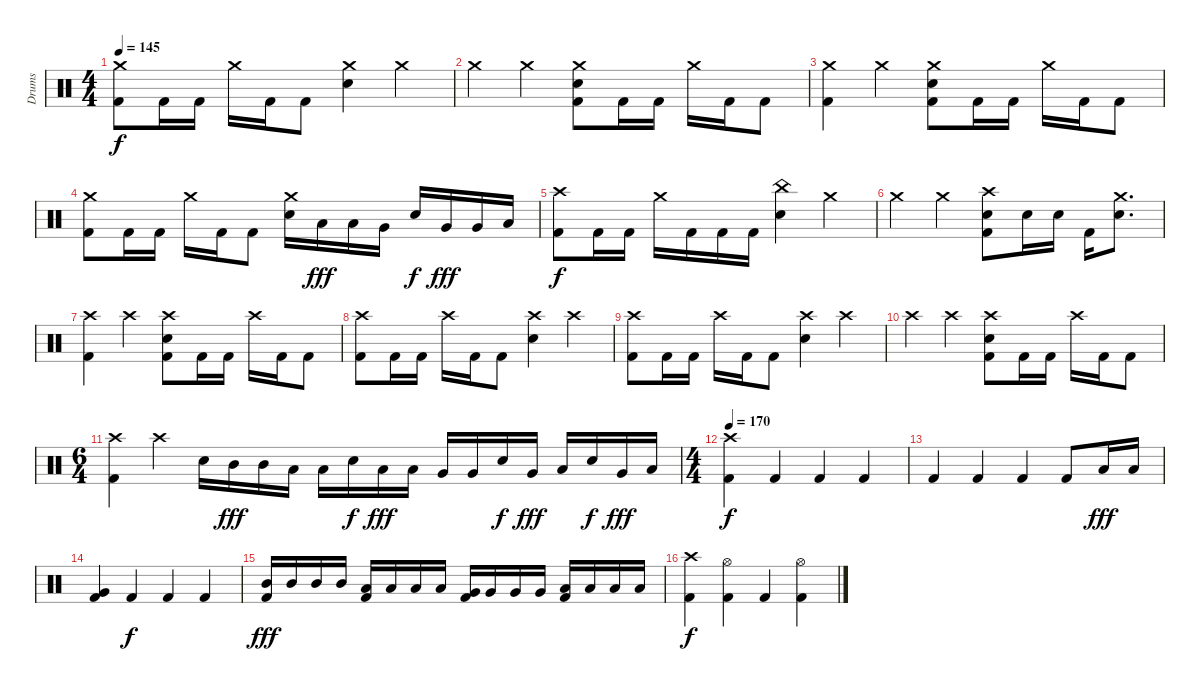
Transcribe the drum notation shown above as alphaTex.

\track ("Drums" "Drums") {instrument percussion}
\staff {score}
\articulation defaults
\ts (4 4)
\tempo 145
\clef neutral
\ks c
("Crash medium (hit)" "Kick (hit) 2").8{dy f} "Kick (hit) 2".16 "Kick (hit) 2".16 "Crash medium (hit)".16 "Kick (hit) 2".16 "Kick (hit) 2".8 ("Crash medium (hit)" "Electric Snare (hit)").4 "Crash medium (hit)".4 |
"Crash medium (hit)".4 "Crash medium (hit)".4 ("Crash medium (hit)" "Electric Snare (hit)" "Kick (hit) 2").8 "Kick (hit) 2".16 "Kick (hit) 2".16 "Crash medium (hit)".16 "Kick (hit) 2".16 "Kick (hit) 2".8 |
("Crash medium (hit)" "Kick (hit) 2").4 "Crash medium (hit)".4 ("Crash medium (hit)" "Electric Snare (hit)" "Kick (hit) 2").8 "Kick (hit) 2".16 "Kick (hit) 2".16 "Crash medium (hit)".16 "Kick (hit) 2".16 "Kick (hit) 2".8 |
("Crash medium (hit)" "Kick (hit) 2").8 "Kick (hit) 2".16 "Kick (hit) 2".16 "Crash medium (hit)".16 "Kick (hit) 2".16 "Kick (hit) 2".8 ("Crash medium (hit)" "Electric Snare (hit)").16 "Low Tom (hit)".16{dy fff} "Low Tom (hit)".16 "Very Low Tom (hit)".16 "Electric Snare (hit)".16{dy f} "Very Low Tom (hit)".16{dy fff} "Very Low Tom (hit)".16 "Low Floor Tom (hit)".16 |
("Crash high (hit)" "Kick (hit) 2").8{dy f} "Kick (hit) 2".16 "Kick (hit) 2".16 "Crash medium (hit)".16 "Kick (hit) 2".16 "Kick (hit) 2".16 "Kick (hit) 2".16 ("China (hit)" "Electric Snare (hit)").4 "Crash medium (hit)".4 |
"Crash medium (hit)".4 "Crash medium (hit)".4 ("Crash high (hit)" "Electric Snare (hit)" "Kick (hit) 2").8 "Electric Snare (hit)".16 "Electric Snare (hit)".16 "Kick (hit) 2".16 ("Crash medium (hit)" "Electric Snare (hit)").8{d} |
("Crash high (hit)" "Kick (hit) 2").4 "Crash high (hit)".4 ("Crash high (hit)" "Electric Snare (hit)" "Kick (hit) 2").8 "Kick (hit) 2".16 "Kick (hit) 2".16 "Crash high (hit)".16 "Kick (hit) 2".16 "Kick (hit) 2".8 |
("Crash high (hit)" "Kick (hit) 2").8 "Kick (hit) 2".16 "Kick (hit) 2".16 "Crash high (hit)".16 "Kick (hit) 2".16 "Kick (hit) 2".8 ("Crash high (hit)" "Electric Snare (hit)").4 "Crash high (hit)".4 |
("Crash high (hit)" "Kick (hit) 2").8 "Kick (hit) 2".16 "Kick (hit) 2".16 "Crash high (hit)".16 "Kick (hit) 2".16 "Kick (hit) 2".8 ("Crash high (hit)" "Electric Snare (hit)").4 "Crash high (hit)".4 |
"Crash high (hit)".4 "Crash high (hit)".4 ("Crash high (hit)" "Electric Snare (hit)" "Kick (hit) 2").8 "Kick (hit) 2".16 "Kick (hit) 2".16 "Crash high (hit)".16 "Kick (hit) 2".16 "Kick (hit) 2".8 |
\ts (6 4)
("Crash high (hit)" "Kick (hit) 2").4 "Crash high (hit)".4 "Electric Snare (hit)".16 "Mid Tom (hit)".16{dy fff} "Mid Tom (hit)".16 "Low Tom (hit)".16 "Low Tom (hit)".16 "Electric Snare (hit)".16{dy f} "Low Tom (hit)".16{dy fff} "Low Tom (hit)".16 "Very Low Tom (hit)".16 "Very Low Tom (hit)".16 "Electric Snare (hit)".16{dy f} "Very Low Tom (hit)".16{dy fff} "Low Floor Tom (hit)".16 "Electric Snare (hit)".16{dy f} "Very Low Tom (hit)".16{dy fff} "Low Floor Tom (hit)".16 |
\ts (4 4)
\tempo 170
("Crash high (hit)" "Kick (hit) 2").4{dy f} "Kick (hit) 2".4 "Kick (hit) 2".4 "Kick (hit) 2".4 |
"Kick (hit) 2".4 "Kick (hit) 2".4 "Kick (hit) 2".4 "Kick (hit) 2".8 "Low Tom (hit)".16{dy fff} "Low Tom (hit)".16 |
("Very Low Tom (hit)" "Kick (hit) 2").4 "Kick (hit) 2".4{dy f} "Kick (hit) 2".4 "Kick (hit) 2".4 |
("Mid Tom (hit)" "Kick (hit) 2").16{dy fff} "Mid Tom (hit)".16 "Mid Tom (hit)".16 "Mid Tom (hit)".16 ("Low Tom (hit)" "Kick (hit) 2").16 "Low Tom (hit)".16 "Low Tom (hit)".16 "Low Tom (hit)".16 ("Very Low Tom (hit)" "Kick (hit) 2").16 "Very Low Tom (hit)".16 "Very Low Tom (hit)".16 "Very Low Tom (hit)".16 ("Low Floor Tom (hit)" "Kick (hit) 2").16 "Low Floor Tom (hit)".16 "Low Floor Tom (hit)".16 "Low Floor Tom (hit)".16 |
("Crash high (hit)" "Kick (hit) 2").4{dy f} ("Hi-Hat (open)" "Kick (hit) 2").4 "Kick (hit) 2".4 ("Hi-Hat (open)" "Kick (hit) 2").4
